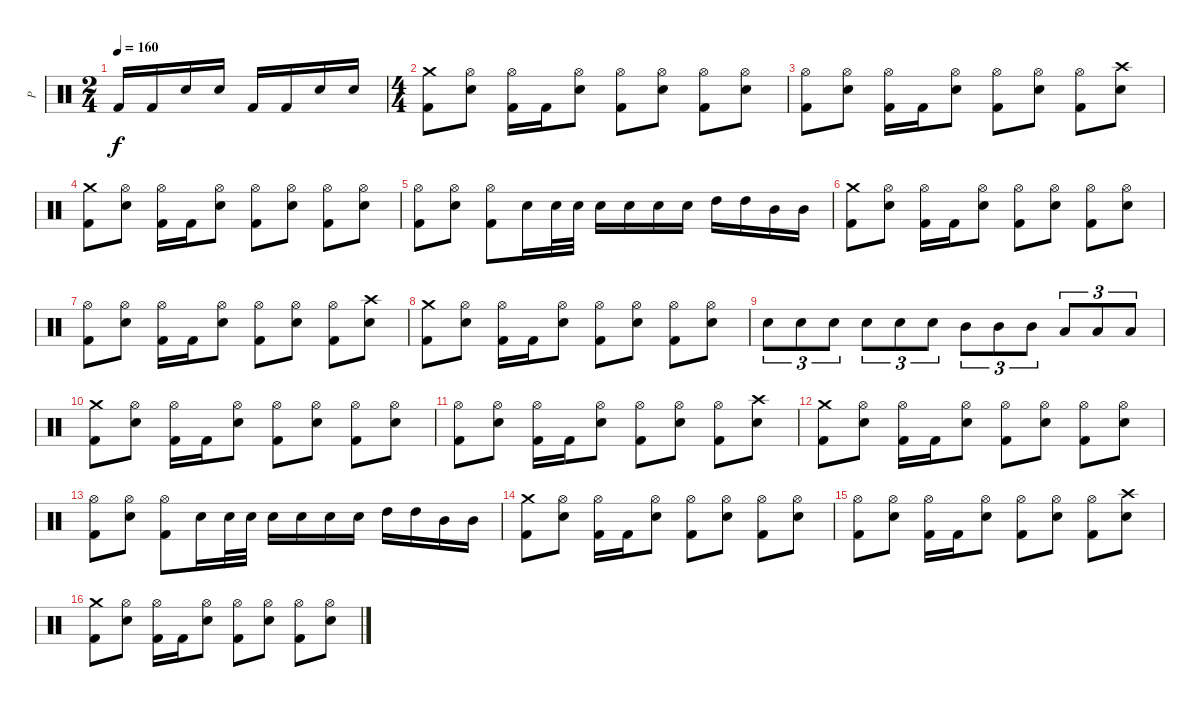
\track ("P" "P") {instrument percussion}
\staff {score}
\articulation defaults
\ts (2 4)
\tempo 160
\clef neutral
\ks c "Kick (hit) 2".16{dy f} "Kick (hit) 2".16 "Electric Snare (hit)".16 "Electric Snare (hit)".16 "Kick (hit) 2".16 "Kick (hit) 2".16 "Electric Snare (hit)".16 "Electric Snare (hit)".16
|
\ts (4 4)
("Crash medium (hit)" "Kick (hit) 2").8 ("Hi-Hat (open)" "Electric Snare (hit)").8 ("Hi-Hat (open)" "Kick (hit) 2").16 "Kick (hit) 2".16 ("Hi-Hat (open)" "Electric Snare (hit)").8 ("Hi-Hat (open)" "Kick (hit) 2").8 ("Hi-Hat (open)" "Electric Snare (hit)").8 ("Hi-Hat (open)" "Kick (hit) 2").8 ("Hi-Hat (open)" "Electric Snare (hit)").8 |
("Hi-Hat (open)" "Kick (hit) 2").8 ("Hi-Hat (open)" "Electric Snare (hit)").8 ("Hi-Hat (open)" "Kick (hit) 2").16 "Kick (hit) 2".16 ("Hi-Hat (open)" "Electric Snare (hit)").8 ("Hi-Hat (open)" "Kick (hit) 2").8 ("Hi-Hat (open)" "Electric Snare (hit)").8 ("Hi-Hat (open)" "Kick (hit) 2").8 ("Crash high (hit)" "Electric Snare (hit)").8 |
("Crash medium (hit)" "Kick (hit) 2").8 ("Hi-Hat (open)" "Electric Snare (hit)").8 ("Hi-Hat (open)" "Kick (hit) 2").16 "Kick (hit) 2".16 ("Hi-Hat (open)" "Electric Snare (hit)").8 ("Hi-Hat (open)" "Kick (hit) 2").8 ("Hi-Hat (open)" "Electric Snare (hit)").8 ("Hi-Hat (open)" "Kick (hit) 2").8 ("Hi-Hat (open)" "Electric Snare (hit)").8 |
("Hi-Hat (open)" "Kick (hit) 2").8 ("Hi-Hat (open)" "Electric Snare (hit)").8 ("Hi-Hat (open)" "Kick (hit) 2").8 "Electric Snare (hit)".16 "Electric Snare (hit)".32 "Electric Snare (hit)".32 "Electric Snare (hit)".16 "Electric Snare (hit)".16 "Electric Snare (hit)".16 "Electric Snare (hit)".16 "High Tom (hit)".16 "High Tom (hit)".16 "Mid Tom (hit)".16 "Mid Tom (hit)".16 |
("Crash medium (hit)" "Kick (hit) 2").8 ("Hi-Hat (open)" "Electric Snare (hit)").8 ("Hi-Hat (open)" "Kick (hit) 2").16 "Kick (hit) 2".16 ("Hi-Hat (open)" "Electric Snare (hit)").8 ("Hi-Hat (open)" "Kick (hit) 2").8 ("Hi-Hat (open)" "Electric Snare (hit)").8 ("Hi-Hat (open)" "Kick (hit) 2").8 ("Hi-Hat (open)" "Electric Snare (hit)").8 |
("Hi-Hat (open)" "Kick (hit) 2").8 ("Hi-Hat (open)" "Electric Snare (hit)").8 ("Hi-Hat (open)" "Kick (hit) 2").16 "Kick (hit) 2".16 ("Hi-Hat (open)" "Electric Snare (hit)").8 ("Hi-Hat (open)" "Kick (hit) 2").8 ("Hi-Hat (open)" "Electric Snare (hit)").8 ("Hi-Hat (open)" "Kick (hit) 2").8 ("Crash high (hit)" "Electric Snare (hit)").8 |
("Crash medium (hit)" "Kick (hit) 2").8 ("Hi-Hat (open)" "Electric Snare (hit)").8 ("Hi-Hat (open)" "Kick (hit) 2").16 "Kick (hit) 2".16 ("Hi-Hat (open)" "Electric Snare (hit)").8 ("Hi-Hat (open)" "Kick (hit) 2").8 ("Hi-Hat (open)" "Electric Snare (hit)").8 ("Hi-Hat (open)" "Kick (hit) 2").8 ("Hi-Hat (open)" "Electric Snare (hit)").8 |
"Electric Snare (hit)".8{tu (3 2)} "Electric Snare (hit)".8{tu (3 2)} "Electric Snare (hit)".8{tu (3 2)} "Electric Snare (hit)".8{tu (3 2)} "Electric Snare (hit)".8{tu (3 2)} "Electric Snare (hit)".8{tu (3 2)} "Mid Tom (hit)".8{tu (3 2)} "Mid Tom (hit)".8{tu (3 2)} "Mid Tom (hit)".8{tu (3 2)} "Low Tom (hit)".8{tu (3 2)} "Low Tom (hit)".8{tu (3 2)} "Low Tom (hit)".8{tu (3 2)} |
("Crash medium (hit)" "Kick (hit) 2").8 ("Hi-Hat (open)" "Electric Snare (hit)").8 ("Hi-Hat (open)" "Kick (hit) 2").16 "Kick (hit) 2".16 ("Hi-Hat (open)" "Electric Snare (hit)").8 ("Hi-Hat (open)" "Kick (hit) 2").8 ("Hi-Hat (open)" "Electric Snare (hit)").8 ("Hi-Hat (open)" "Kick (hit) 2").8 ("Hi-Hat (open)" "Electric Snare (hit)").8 |
("Hi-Hat (open)" "Kick (hit) 2").8 ("Hi-Hat (open)" "Electric Snare (hit)").8 ("Hi-Hat (open)" "Kick (hit) 2").16 "Kick (hit) 2".16 ("Hi-Hat (open)" "Electric Snare (hit)").8 ("Hi-Hat (open)" "Kick (hit) 2").8 ("Hi-Hat (open)" "Electric Snare (hit)").8 ("Hi-Hat (open)" "Kick (hit) 2").8 ("Crash high (hit)" "Electric Snare (hit)").8 |
("Crash medium (hit)" "Kick (hit) 2").8 ("Hi-Hat (open)" "Electric Snare (hit)").8 ("Hi-Hat (open)" "Kick (hit) 2").16 "Kick (hit) 2".16 ("Hi-Hat (open)" "Electric Snare (hit)").8 ("Hi-Hat (open)" "Kick (hit) 2").8 ("Hi-Hat (open)" "Electric Snare (hit)").8 ("Hi-Hat (open)" "Kick (hit) 2").8 ("Hi-Hat (open)" "Electric Snare (hit)").8 |
("Hi-Hat (open)" "Kick (hit) 2").8 ("Hi-Hat (open)" "Electric Snare (hit)").8 ("Hi-Hat (open)" "Kick (hit) 2").8 "Electric Snare (hit)".16 "Electric Snare (hit)".32 "Electric Snare (hit)".32 "Electric Snare (hit)".16 "Electric Snare (hit)".16 "Electric Snare (hit)".16 "Electric Snare (hit)".16 "High Tom (hit)".16 "High Tom (hit)".16 "Mid Tom (hit)".16 "Mid Tom (hit)".16 |
("Crash medium (hit)" "Kick (hit) 2").8 ("Hi-Hat (open)" "Electric Snare (hit)").8 ("Hi-Hat (open)" "Kick (hit) 2").16 "Kick (hit) 2".16 ("Hi-Hat (open)" "Electric Snare (hit)").8 ("Hi-Hat (open)" "Kick (hit) 2").8 ("Hi-Hat (open)" "Electric Snare (hit)").8 ("Hi-Hat (open)" "Kick (hit) 2").8 ("Hi-Hat (open)" "Electric Snare (hit)").8 |
("Hi-Hat (open)" "Kick (hit) 2").8 ("Hi-Hat (open)" "Electric Snare (hit)").8 ("Hi-Hat (open)" "Kick (hit) 2").16 "Kick (hit) 2".16 ("Hi-Hat (open)" "Electric Snare (hit)").8 ("Hi-Hat (open)" "Kick (hit) 2").8 ("Hi-Hat (open)" "Electric Snare (hit)").8 ("Hi-Hat (open)" "Kick (hit) 2").8 ("Crash high (hit)" "Electric Snare (hit)").8 |
("Crash medium (hit)" "Kick (hit) 2").8 ("Hi-Hat (open)" "Electric Snare (hit)").8 ("Hi-Hat (open)" "Kick (hit) 2").16 "Kick (hit) 2".16 ("Hi-Hat (open)" "Electric Snare (hit)").8 ("Hi-Hat (open)" "Kick (hit) 2").8 ("Hi-Hat (open)" "Electric Snare (hit)").8 ("Hi-Hat (open)" "Kick (hit) 2").8 ("Hi-Hat (open)" "Electric Snare (hit)").8
